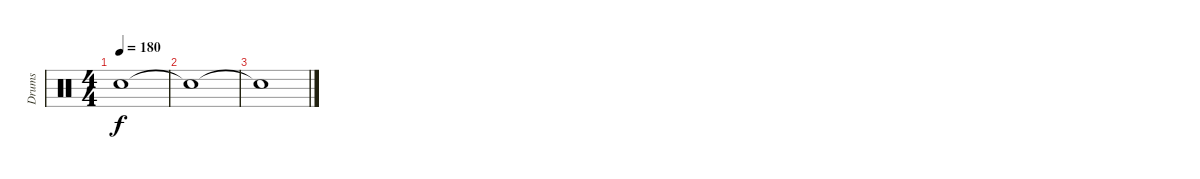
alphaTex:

\track ("Drums" "Drums") {instrument percussion}
\staff {score}
\articulation defaults
\ts (4 4)
\tempo 180
\clef neutral
\ks c "Snare (hit)"{t}.1{dy f}
|
"Snare (hit)"{t}.1 |
"Snare (hit)"{t}.1
